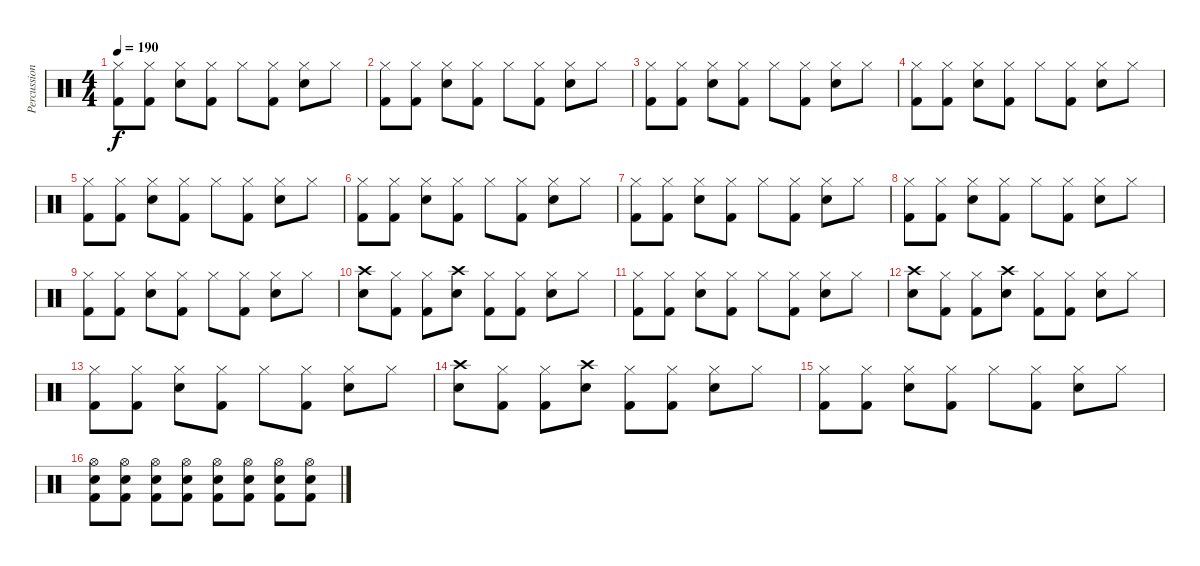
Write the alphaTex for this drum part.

\track ("Percussion" "Percussion") {instrument percussion}
\staff {score}
\articulation defaults
\ts (4 4)
\tempo 190
\clef neutral
\ks c
("Hi-Hat (closed)" "Kick (hit) 2").8{dy f} ("Hi-Hat (closed)" "Kick (hit) 2").8 ("Hi-Hat (closed)" "Snare (hit) 2").8 ("Hi-Hat (closed)" "Kick (hit) 2").8 "Hi-Hat (closed)".8 ("Hi-Hat (closed)" "Kick (hit) 2").8 ("Hi-Hat (closed)" "Snare (hit) 2").8 "Hi-Hat (closed)".8 |
("Hi-Hat (closed)" "Kick (hit) 2").8 ("Hi-Hat (closed)" "Kick (hit) 2").8 ("Hi-Hat (closed)" "Snare (hit) 2").8 ("Hi-Hat (closed)" "Kick (hit) 2").8 "Hi-Hat (closed)".8 ("Hi-Hat (closed)" "Kick (hit) 2").8 ("Hi-Hat (closed)" "Snare (hit) 2").8 "Hi-Hat (closed)".8 |
("Hi-Hat (closed)" "Kick (hit) 2").8 ("Hi-Hat (closed)" "Kick (hit) 2").8 ("Hi-Hat (closed)" "Snare (hit) 2").8 ("Hi-Hat (closed)" "Kick (hit) 2").8 "Hi-Hat (closed)".8 ("Hi-Hat (closed)" "Kick (hit) 2").8 ("Hi-Hat (closed)" "Snare (hit) 2").8 "Hi-Hat (closed)".8 |
("Hi-Hat (closed)" "Kick (hit) 2").8 ("Hi-Hat (closed)" "Kick (hit) 2").8 ("Hi-Hat (closed)" "Snare (hit) 2").8 ("Hi-Hat (closed)" "Kick (hit) 2").8 "Hi-Hat (closed)".8 ("Hi-Hat (closed)" "Kick (hit) 2").8 ("Hi-Hat (closed)" "Snare (hit) 2").8 "Hi-Hat (closed)".8 |
("Hi-Hat (closed)" "Kick (hit) 2").8 ("Hi-Hat (closed)" "Kick (hit) 2").8 ("Hi-Hat (closed)" "Snare (hit) 2").8 ("Hi-Hat (closed)" "Kick (hit) 2").8 "Hi-Hat (closed)".8 ("Hi-Hat (closed)" "Kick (hit) 2").8 ("Hi-Hat (closed)" "Snare (hit) 2").8 "Hi-Hat (closed)".8 |
("Hi-Hat (closed)" "Kick (hit) 2").8 ("Hi-Hat (closed)" "Kick (hit) 2").8 ("Hi-Hat (closed)" "Snare (hit) 2").8 ("Hi-Hat (closed)" "Kick (hit) 2").8 "Hi-Hat (closed)".8 ("Hi-Hat (closed)" "Kick (hit) 2").8 ("Hi-Hat (closed)" "Snare (hit) 2").8 "Hi-Hat (closed)".8 |
("Hi-Hat (closed)" "Kick (hit) 2").8 ("Hi-Hat (closed)" "Kick (hit) 2").8 ("Hi-Hat (closed)" "Snare (hit) 2").8 ("Hi-Hat (closed)" "Kick (hit) 2").8 "Hi-Hat (closed)".8 ("Hi-Hat (closed)" "Kick (hit) 2").8 ("Hi-Hat (closed)" "Snare (hit) 2").8 "Hi-Hat (closed)".8 |
("Hi-Hat (closed)" "Kick (hit) 2").8 ("Hi-Hat (closed)" "Kick (hit) 2").8 ("Hi-Hat (closed)" "Snare (hit) 2").8 ("Hi-Hat (closed)" "Kick (hit) 2").8 "Hi-Hat (closed)".8 ("Hi-Hat (closed)" "Kick (hit) 2").8 ("Hi-Hat (closed)" "Snare (hit) 2").8 "Hi-Hat (closed)".8 |
("Hi-Hat (closed)" "Kick (hit) 2").8 ("Hi-Hat (closed)" "Kick (hit) 2").8 ("Hi-Hat (closed)" "Snare (hit) 2").8 ("Hi-Hat (closed)" "Kick (hit) 2").8 "Hi-Hat (closed)".8 ("Hi-Hat (closed)" "Kick (hit) 2").8 ("Hi-Hat (closed)" "Snare (hit) 2").8 "Hi-Hat (closed)".8 |
("Crash high (hit)" "Snare (hit) 2").8 ("Hi-Hat (closed)" "Kick (hit) 2").8 ("Hi-Hat (closed)" "Kick (hit) 2").8 ("Crash high (hit)" "Snare (hit) 2").8 ("Hi-Hat (closed)" "Kick (hit) 2").8 ("Hi-Hat (closed)" "Kick (hit) 2").8 ("Hi-Hat (closed)" "Snare (hit) 2").8 "Hi-Hat (closed)".8 |
("Hi-Hat (closed)" "Kick (hit) 2").8 ("Hi-Hat (closed)" "Kick (hit) 2").8 ("Hi-Hat (closed)" "Snare (hit) 2").8 ("Hi-Hat (closed)" "Kick (hit) 2").8 "Hi-Hat (closed)".8 ("Hi-Hat (closed)" "Kick (hit) 2").8 ("Hi-Hat (closed)" "Snare (hit) 2").8 "Hi-Hat (closed)".8 |
("Crash high (hit)" "Snare (hit) 2").8 ("Hi-Hat (closed)" "Kick (hit) 2").8 ("Hi-Hat (closed)" "Kick (hit) 2").8 ("Crash high (hit)" "Snare (hit) 2").8 ("Hi-Hat (closed)" "Kick (hit) 2").8 ("Hi-Hat (closed)" "Kick (hit) 2").8 ("Hi-Hat (closed)" "Snare (hit) 2").8 "Hi-Hat (closed)".8 |
("Hi-Hat (closed)" "Kick (hit) 2").8 ("Hi-Hat (closed)" "Kick (hit) 2").8 ("Hi-Hat (closed)" "Snare (hit) 2").8 ("Hi-Hat (closed)" "Kick (hit) 2").8 "Hi-Hat (closed)".8 ("Hi-Hat (closed)" "Kick (hit) 2").8 ("Hi-Hat (closed)" "Snare (hit) 2").8 "Hi-Hat (closed)".8 |
("Crash high (hit)" "Snare (hit) 2").8 ("Hi-Hat (closed)" "Kick (hit) 2").8 ("Hi-Hat (closed)" "Kick (hit) 2").8 ("Crash high (hit)" "Snare (hit) 2").8 ("Hi-Hat (closed)" "Kick (hit) 2").8 ("Hi-Hat (closed)" "Kick (hit) 2").8 ("Hi-Hat (closed)" "Snare (hit) 2").8 "Hi-Hat (closed)".8 |
("Hi-Hat (closed)" "Kick (hit) 2").8 ("Hi-Hat (closed)" "Kick (hit) 2").8 ("Hi-Hat (closed)" "Snare (hit) 2").8 ("Hi-Hat (closed)" "Kick (hit) 2").8 "Hi-Hat (closed)".8 ("Hi-Hat (closed)" "Kick (hit) 2").8 ("Hi-Hat (closed)" "Snare (hit) 2").8 "Hi-Hat (closed)".8 |
("Hi-Hat (open)" "Snare (hit) 2" "Kick (hit) 2").8 ("Hi-Hat (open)" "Snare (hit) 2" "Kick (hit) 2").8 ("Hi-Hat (open)" "Snare (hit) 2" "Kick (hit) 2").8 ("Hi-Hat (open)" "Snare (hit) 2" "Kick (hit) 2").8 ("Hi-Hat (open)" "Snare (hit) 2" "Kick (hit) 2").8 ("Hi-Hat (open)" "Snare (hit) 2" "Kick (hit) 2").8 ("Hi-Hat (open)" "Snare (hit) 2" "Kick (hit) 2").8 ("Hi-Hat (open)" "Snare (hit) 2" "Kick (hit) 2").8
